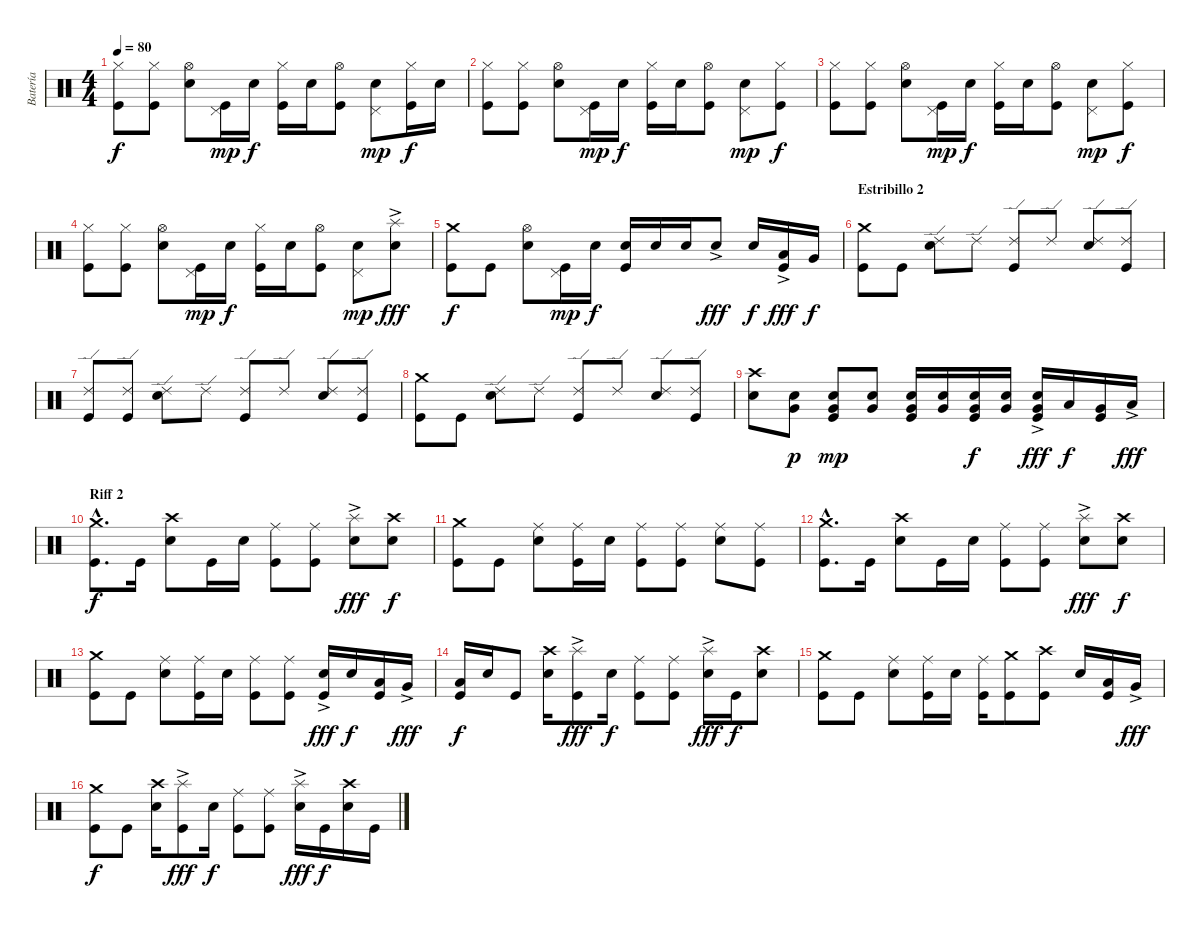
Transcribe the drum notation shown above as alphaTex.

\track ("Batería" "Batería") {instrument percussion}
\staff {score}
\articulation defaults
\ts (4 4)
\tempo 80
\clef neutral
\ks c
("Kick (hit)" "Hi-Hat (closed)").8{dy f} ("Kick (hit)" "Hi-Hat (closed)").8 ("Electric Snare (hit)" "Hi-Hat (open)").8 ("Kick (hit)" "Pedal Hi-Hat (hit)").16{dy mp} "Electric Snare (hit)".16{dy f} ("Kick (hit)" "Hi-Hat (closed)").16 "Electric Snare (hit)".16 ("Kick (hit)" "Hi-Hat (open)").8 ("Electric Snare (hit)" "Pedal Hi-Hat (hit)").8{dy mp} ("Kick (hit)" "Hi-Hat (closed)").16{dy f} "Electric Snare (hit)".16 |
("Kick (hit)" "Hi-Hat (closed)").8 ("Kick (hit)" "Hi-Hat (closed)").8 ("Electric Snare (hit)" "Hi-Hat (open)").8 ("Kick (hit)" "Pedal Hi-Hat (hit)").16{dy mp} "Electric Snare (hit)".16{dy f} ("Kick (hit)" "Hi-Hat (closed)").16 "Electric Snare (hit)".16 ("Kick (hit)" "Hi-Hat (open)").8 ("Electric Snare (hit)" "Pedal Hi-Hat (hit)").8{dy mp} ("Kick (hit)" "Hi-Hat (closed)").8{dy f} |
("Kick (hit)" "Hi-Hat (closed)").8 ("Kick (hit)" "Hi-Hat (closed)").8 ("Electric Snare (hit)" "Hi-Hat (open)").8 ("Kick (hit)" "Pedal Hi-Hat (hit)").16{dy mp} "Electric Snare (hit)".16{dy f} ("Kick (hit)" "Hi-Hat (closed)").16 "Electric Snare (hit)".16 ("Kick (hit)" "Hi-Hat (open)").8 ("Electric Snare (hit)" "Pedal Hi-Hat (hit)").8{dy mp} ("Kick (hit)" "Hi-Hat (closed)").8{dy f} |
("Kick (hit)" "Hi-Hat (closed)").8 ("Kick (hit)" "Hi-Hat (closed)").8 ("Electric Snare (hit)" "Hi-Hat (open)").8 ("Kick (hit)" "Pedal Hi-Hat (hit)").16{dy mp} "Electric Snare (hit)".16{dy f} ("Kick (hit)" "Hi-Hat (closed)").16 "Electric Snare (hit)".16 ("Kick (hit)" "Hi-Hat (open)").8 ("Electric Snare (hit)" "Pedal Hi-Hat (hit)").8{dy mp} ("Electric Snare (hit)" "Splash (hit)"{ac}).8{dy fff} |
("Kick (hit)" "Crash medium (hit)").8{dy f} "Kick (hit)".8 ("Electric Snare (hit)" "Hi-Hat (open)").8 ("Kick (hit)" "Pedal Hi-Hat (hit)").16{dy mp} "Electric Snare (hit)".16{dy f} ("Kick (hit)" "Electric Snare (hit)").16 "Electric Snare (hit)".16 "Electric Snare (hit)".16 "Electric Snare (hit)"{ac}.8{dy fff} "Electric Snare (hit)".16{dy f} ("Kick (hit)" "Low Tom (hit)"{ac}).16{dy fff} "Very Low Tom (hit)".16{dy f} |
\section ("" "Estribillo 2")
("Kick (hit)" "Crash medium (hit)").8 "Kick (hit)".8 ("Electric Snare (hit)" "Ride (edge) 2").8 "Ride (edge) 2".8 ("Kick (hit)" "Ride (edge) 2").8 "Ride (edge) 2".8 ("Electric Snare (hit)" "Ride (edge) 2").8 ("Kick (hit)" "Ride (edge) 2").8 |
("Kick (hit)" "Ride (edge) 2").8 ("Kick (hit)" "Ride (edge) 2").8 ("Electric Snare (hit)" "Ride (edge) 2").8 "Ride (edge) 2".8 ("Kick (hit)" "Ride (edge) 2").8 "Ride (edge) 2".8 ("Electric Snare (hit)" "Ride (edge) 2").8 ("Kick (hit)" "Ride (edge) 2").8 |
("Kick (hit)" "Crash medium (hit)").8 "Kick (hit)".8 ("Electric Snare (hit)" "Ride (edge) 2").8 "Ride (edge) 2".8 ("Kick (hit)" "Ride (edge) 2").8 "Ride (edge) 2".8 ("Electric Snare (hit)" "Ride (edge) 2").8 ("Kick (hit)" "Ride (edge) 2").8 |
("Electric Snare (hit)" "Crash high (hit)").8 ("Electric Snare (hit)" "Very Low Tom (hit)").8{dy p} ("Kick (hit)" "Electric Snare (hit)" "Very Low Tom (hit)").8{dy mp} ("Electric Snare (hit)" "Very Low Tom (hit)").8 ("Kick (hit)" "Electric Snare (hit)" "Very Low Tom (hit)").16 ("Electric Snare (hit)" "Very Low Tom (hit)").16 ("Kick (hit)" "Electric Snare (hit)" "Very Low Tom (hit)").16{dy f} ("Electric Snare (hit)" "Very Low Tom (hit)").16 ("Kick (hit)" "Electric Snare (hit)"{ac} "Very Low Tom (hit)"{ac}).16{dy fff} "Low Tom (hit)".16{dy f} ("Kick (hit)" "Very Low Tom (hit)").16 "Low Floor Tom (hit)"{ac}.16{dy fff} |
\section ("" "Riff 2")
("Kick (hit)"{hac} "Crash medium (hit)"{hac}).8{d dy f} "Kick (hit)".16 ("Electric Snare (hit)" "Crash high (hit)").8 "Kick (hit)".16 "Electric Snare (hit)".16 ("Kick (hit)" "Ride (middle)").8 ("Kick (hit)" "Ride (middle)").8 ("Electric Snare (hit)" "Splash (hit)"{ac}).8{dy fff} ("Electric Snare (hit)" "Crash high (hit)").8{dy f} |
("Kick (hit)" "Crash medium (hit)").8 "Kick (hit)".8 ("Electric Snare (hit)" "Ride (middle)").8 ("Kick (hit)" "Ride (middle)").16 "Electric Snare (hit)".16 ("Kick (hit)" "Ride (middle)").8 ("Kick (hit)" "Ride (middle)").8 ("Electric Snare (hit)" "Ride (middle)").8 ("Kick (hit)" "Ride (middle)").8 |
("Kick (hit)"{hac} "Crash medium (hit)"{hac}).8{d} "Kick (hit)".16 ("Electric Snare (hit)" "Crash high (hit)").8 "Kick (hit)".16 "Electric Snare (hit)".16 ("Kick (hit)" "Ride (middle)").8 ("Kick (hit)" "Ride (middle)").8 ("Electric Snare (hit)" "Splash (hit)"{ac}).8{dy fff} ("Electric Snare (hit)" "Crash high (hit)").8{dy f} |
("Kick (hit)" "Crash medium (hit)").8 "Kick (hit)".8 ("Electric Snare (hit)" "Ride (middle)").8 ("Kick (hit)" "Ride (middle)").16 "Electric Snare (hit)".16 ("Kick (hit)" "Ride (middle)").8 ("Kick (hit)" "Ride (middle)").8 ("Kick (hit)" "Electric Snare (hit)"{ac}).16{dy fff} "Electric Snare (hit)".16{dy f} ("Kick (hit)" "Low Tom (hit)").16 "Very Low Tom (hit)"{ac}.16{dy fff} |
("Kick (hit)" "Low Floor Tom (hit)").16{dy f} "Electric Snare (hit)".16 "Kick (hit)".8 ("Electric Snare (hit)" "Crash high (hit)").16 ("Kick (hit)" "Splash (hit)"{ac}).8{dy fff} "Electric Snare (hit)".16{dy f} ("Kick (hit)" "Ride (middle)").8 ("Kick (hit)" "Ride (middle)").8 ("Electric Snare (hit)" "Splash (hit)"{ac}).16{dy fff} "Kick (hit)".16{dy f} ("Electric Snare (hit)" "Crash high (hit)").8 |
("Kick (hit)" "Crash medium (hit)").8 "Kick (hit)".8 ("Electric Snare (hit)" "Ride (middle)").8 ("Kick (hit)" "Ride (middle)").16 "Electric Snare (hit)".16 ("Kick (hit)" "Ride (middle)").16 ("Kick (hit)" "Crash medium (hit)").8 ("Kick (hit)" "Crash high (hit)").8 "Electric Snare (hit)".16 ("Kick (hit)" "Low Tom (hit)").16 "Very Low Tom (hit)"{ac}.16{dy fff} |
("Kick (hit)" "Crash medium (hit)").8{dy f} "Kick (hit)".8 ("Electric Snare (hit)" "Crash high (hit)").16 ("Kick (hit)" "Splash (hit)"{ac}).8{dy fff} "Electric Snare (hit)".16{dy f} ("Kick (hit)" "Ride (middle)").8 ("Kick (hit)" "Ride (middle)").8 ("Electric Snare (hit)" "Splash (hit)"{ac}).16{dy fff} "Kick (hit)".16{dy f} ("Electric Snare (hit)" "Crash high (hit)").16 "Kick (hit)".16
